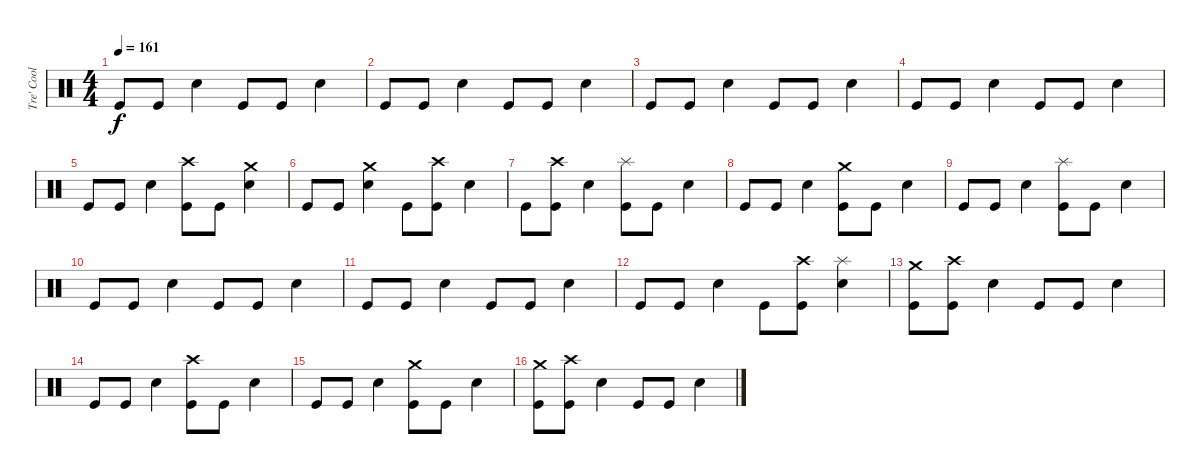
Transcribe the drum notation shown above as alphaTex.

\track ("Tre' Cool" "Tre' Cool") {instrument percussion}
\staff {score}
\articulation defaults
\ts (4 4)
\tempo 161
\clef neutral
\ks c "Kick (hit)".8{dy f} "Kick (hit)".8 "Snare (hit) 2".4 "Kick (hit)".8 "Kick (hit)".8 "Snare (hit) 2".4
|
"Kick (hit)".8 "Kick (hit)".8 "Snare (hit) 2".4 "Kick (hit)".8 "Kick (hit)".8 "Snare (hit) 2".4 |
"Kick (hit)".8 "Kick (hit)".8 "Snare (hit) 2".4 "Kick (hit)".8 "Kick (hit)".8 "Snare (hit) 2".4 |
"Kick (hit)".8 "Kick (hit)".8 "Snare (hit) 2".4 "Kick (hit)".8 "Kick (hit)".8 "Snare (hit) 2".4 |
"Kick (hit)".8 "Kick (hit)".8 "Snare (hit) 2".4 ("Kick (hit)" "Crash high (hit)").8 "Kick (hit)".8 ("Snare (hit) 2" "Crash medium (hit)").4 |
"Kick (hit)".8 "Kick (hit)".8 ("Snare (hit) 2" "Crash medium (hit)").4 "Kick (hit)".8 ("Kick (hit)" "Crash high (hit)").8 "Snare (hit) 2".4 |
"Kick (hit)".8 ("Kick (hit)" "Crash high (hit)").8 "Snare (hit) 2".4 ("Kick (hit)" "Splash (hit)").8 "Kick (hit)".8 "Snare (hit) 2".4 |
"Kick (hit)".8 "Kick (hit)".8 "Snare (hit) 2".4 ("Kick (hit)" "Crash medium (hit)").8 "Kick (hit)".8 "Snare (hit) 2".4 |
"Kick (hit)".8 "Kick (hit)".8 "Snare (hit) 2".4 ("Kick (hit)" "Splash (hit)").8 "Kick (hit)".8 "Snare (hit) 2".4 |
"Kick (hit)".8 "Kick (hit)".8 "Snare (hit) 2".4 "Kick (hit)".8 "Kick (hit)".8 "Snare (hit) 2".4 |
"Kick (hit)".8 "Kick (hit)".8 "Snare (hit) 2".4 "Kick (hit)".8 "Kick (hit)".8 "Snare (hit) 2".4 |
"Kick (hit)".8 "Kick (hit)".8 "Snare (hit) 2".4 "Kick (hit)".8 ("Kick (hit)" "Crash high (hit)").8 ("Snare (hit) 2" "Splash (hit)").4 |
("Kick (hit)" "Crash medium (hit)").8 ("Kick (hit)" "Crash high (hit)").8 "Snare (hit) 2".4 "Kick (hit)".8 "Kick (hit)".8 "Snare (hit) 2".4 |
"Kick (hit)".8 "Kick (hit)".8 "Snare (hit) 2".4 ("Kick (hit)" "Crash high (hit)").8 "Kick (hit)".8 "Snare (hit) 2".4 |
"Kick (hit)".8 "Kick (hit)".8 "Snare (hit) 2".4 ("Kick (hit)" "Crash medium (hit)").8 "Kick (hit)".8 "Snare (hit) 2".4 |
("Kick (hit)" "Crash medium (hit)").8 ("Kick (hit)" "Crash high (hit)").8 "Snare (hit) 2".4 "Kick (hit)".8 "Kick (hit)".8 "Snare (hit) 2".4
